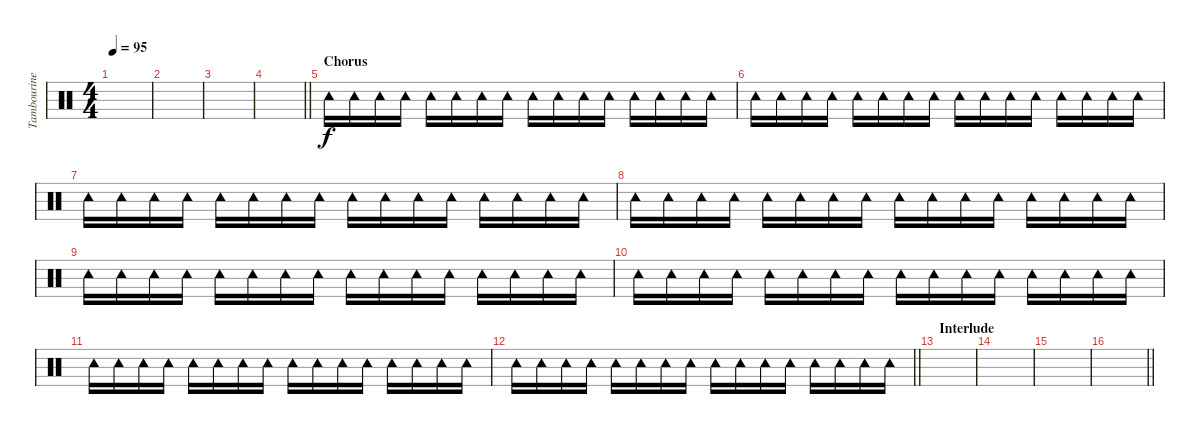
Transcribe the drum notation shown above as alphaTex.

\track ("Tambourine" "Tambourine") {instrument percussion}
\staff {score}
\articulation defaults
\ts (4 4)
\tempo 95
\clef neutral
\ks c
|
|
|
\barLineRight lightlight
|
\section ("" "Chorus")
"Tambourine (hit)".16 "Tambourine (hit)".16 "Tambourine (hit)".16 "Tambourine (hit)".16 "Tambourine (hit)".16 "Tambourine (hit)".16 "Tambourine (hit)".16 "Tambourine (hit)".16 "Tambourine (hit)".16 "Tambourine (hit)".16 "Tambourine (hit)".16 "Tambourine (hit)".16 "Tambourine (hit)".16 "Tambourine (hit)".16 "Tambourine (hit)".16 "Tambourine (hit)".16 |
"Tambourine (hit)".16 "Tambourine (hit)".16 "Tambourine (hit)".16 "Tambourine (hit)".16 "Tambourine (hit)".16 "Tambourine (hit)".16 "Tambourine (hit)".16 "Tambourine (hit)".16 "Tambourine (hit)".16 "Tambourine (hit)".16 "Tambourine (hit)".16 "Tambourine (hit)".16 "Tambourine (hit)".16 "Tambourine (hit)".16 "Tambourine (hit)".16 "Tambourine (hit)".16 |
"Tambourine (hit)".16 "Tambourine (hit)".16 "Tambourine (hit)".16 "Tambourine (hit)".16 "Tambourine (hit)".16 "Tambourine (hit)".16 "Tambourine (hit)".16 "Tambourine (hit)".16 "Tambourine (hit)".16 "Tambourine (hit)".16 "Tambourine (hit)".16 "Tambourine (hit)".16 "Tambourine (hit)".16 "Tambourine (hit)".16 "Tambourine (hit)".16 "Tambourine (hit)".16 |
"Tambourine (hit)".16 "Tambourine (hit)".16 "Tambourine (hit)".16 "Tambourine (hit)".16 "Tambourine (hit)".16 "Tambourine (hit)".16 "Tambourine (hit)".16 "Tambourine (hit)".16 "Tambourine (hit)".16 "Tambourine (hit)".16 "Tambourine (hit)".16 "Tambourine (hit)".16 "Tambourine (hit)".16 "Tambourine (hit)".16 "Tambourine (hit)".16 "Tambourine (hit)".16 |
"Tambourine (hit)".16 "Tambourine (hit)".16 "Tambourine (hit)".16 "Tambourine (hit)".16 "Tambourine (hit)".16 "Tambourine (hit)".16 "Tambourine (hit)".16 "Tambourine (hit)".16 "Tambourine (hit)".16 "Tambourine (hit)".16 "Tambourine (hit)".16 "Tambourine (hit)".16 "Tambourine (hit)".16 "Tambourine (hit)".16 "Tambourine (hit)".16 "Tambourine (hit)".16 |
"Tambourine (hit)".16 "Tambourine (hit)".16 "Tambourine (hit)".16 "Tambourine (hit)".16 "Tambourine (hit)".16 "Tambourine (hit)".16 "Tambourine (hit)".16 "Tambourine (hit)".16 "Tambourine (hit)".16 "Tambourine (hit)".16 "Tambourine (hit)".16 "Tambourine (hit)".16 "Tambourine (hit)".16 "Tambourine (hit)".16 "Tambourine (hit)".16 "Tambourine (hit)".16 |
"Tambourine (hit)".16 "Tambourine (hit)".16 "Tambourine (hit)".16 "Tambourine (hit)".16 "Tambourine (hit)".16 "Tambourine (hit)".16 "Tambourine (hit)".16 "Tambourine (hit)".16 "Tambourine (hit)".16 "Tambourine (hit)".16 "Tambourine (hit)".16 "Tambourine (hit)".16 "Tambourine (hit)".16 "Tambourine (hit)".16 "Tambourine (hit)".16 "Tambourine (hit)".16 |
\barLineRight lightlight "Tambourine (hit)".16 "Tambourine (hit)".16 "Tambourine (hit)".16 "Tambourine (hit)".16 "Tambourine (hit)".16 "Tambourine (hit)".16 "Tambourine (hit)".16 "Tambourine (hit)".16 "Tambourine (hit)".16 "Tambourine (hit)".16 "Tambourine (hit)".16 "Tambourine (hit)".16 "Tambourine (hit)".16 "Tambourine (hit)".16 "Tambourine (hit)".16 "Tambourine (hit)".16
|
\section ("" "Interlude")
|
|
|
\barLineRight lightlight
